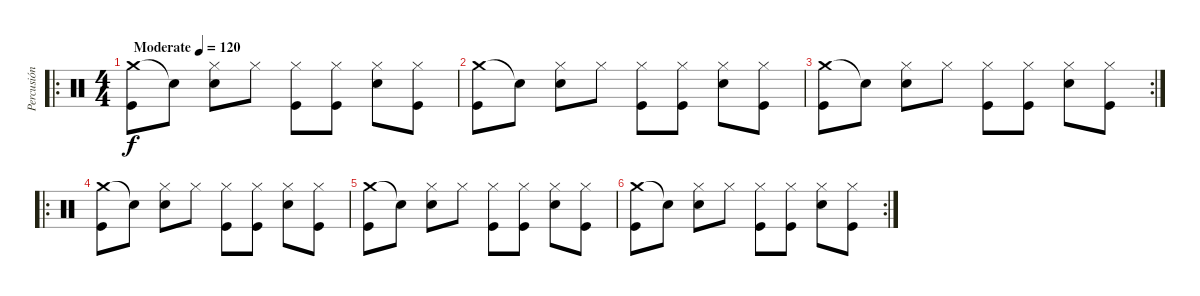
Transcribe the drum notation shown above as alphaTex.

\track ("Percusión" "Percusión") {instrument percussion}
\staff {score}
\articulation defaults
\ro
\ts (4 4)
\tempo (120 "Moderate")
\clef neutral
\ks c
("Crash medium (hit)" "Kick (hit)").8{dy f} "Snare (hit)"{t}.8 ("Hi-Hat (closed)" "Snare (hit) 2").8 "Hi-Hat (closed)".8 ("Hi-Hat (closed)" "Kick (hit)").8 ("Hi-Hat (closed)" "Kick (hit)").8 ("Hi-Hat (closed)" "Snare (hit) 2").8 ("Hi-Hat (closed)" "Kick (hit)").8 |
("Crash medium (hit)" "Kick (hit)").8 "Snare (hit)"{t}.8 ("Hi-Hat (closed)" "Snare (hit) 2").8 "Hi-Hat (closed)".8 ("Hi-Hat (closed)" "Kick (hit)").8 ("Hi-Hat (closed)" "Kick (hit)").8 ("Hi-Hat (closed)" "Snare (hit) 2").8 ("Hi-Hat (closed)" "Kick (hit)").8 |
\rc 2
("Crash medium (hit)" "Kick (hit)").8 "Snare (hit)"{t}.8 ("Hi-Hat (closed)" "Snare (hit) 2").8 "Hi-Hat (closed)".8 ("Hi-Hat (closed)" "Kick (hit)").8 ("Hi-Hat (closed)" "Kick (hit)").8 ("Hi-Hat (closed)" "Snare (hit) 2").8 ("Hi-Hat (closed)" "Kick (hit)").8 |
\ro
("Crash medium (hit)" "Kick (hit)").8 "Snare (hit)"{t}.8 ("Hi-Hat (closed)" "Snare (hit) 2").8 "Hi-Hat (closed)".8 ("Hi-Hat (closed)" "Kick (hit)").8 ("Hi-Hat (closed)" "Kick (hit)").8 ("Hi-Hat (closed)" "Snare (hit) 2").8 ("Hi-Hat (closed)" "Kick (hit)").8 |
("Crash medium (hit)" "Kick (hit)").8 "Snare (hit)"{t}.8 ("Hi-Hat (closed)" "Snare (hit) 2").8 "Hi-Hat (closed)".8 ("Hi-Hat (closed)" "Kick (hit)").8 ("Hi-Hat (closed)" "Kick (hit)").8 ("Hi-Hat (closed)" "Snare (hit) 2").8 ("Hi-Hat (closed)" "Kick (hit)").8 |
\rc 2
("Crash medium (hit)" "Kick (hit)").8 "Snare (hit)"{t}.8 ("Hi-Hat (closed)" "Snare (hit) 2").8 "Hi-Hat (closed)".8 ("Hi-Hat (closed)" "Kick (hit)").8 ("Hi-Hat (closed)" "Kick (hit)").8 ("Hi-Hat (closed)" "Snare (hit) 2").8 ("Hi-Hat (closed)" "Kick (hit)").8
